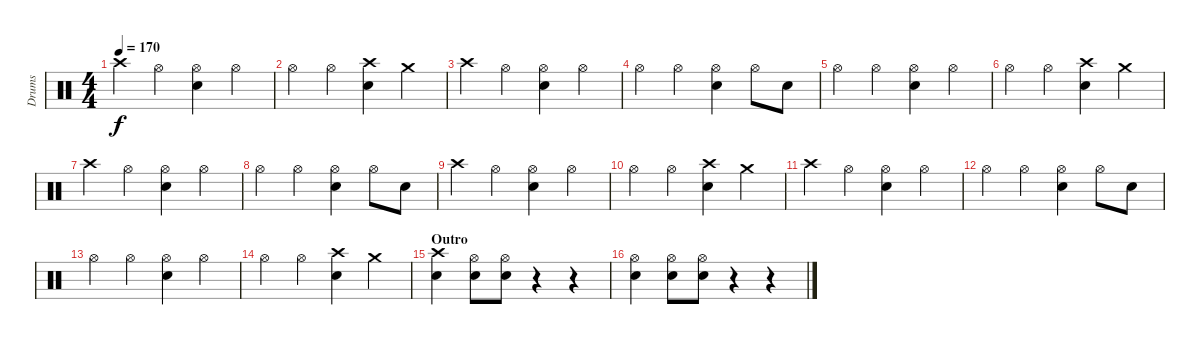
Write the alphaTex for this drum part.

\track ("Drums" "Drums") {instrument percussion}
\staff {score}
\articulation defaults
\ts (4 4)
\tempo 170
\clef neutral
\ks c "Crash high (hit)".4{dy f} "Hi-Hat (open)".4
("Hi-Hat (open)" "Electric Snare (hit)").4 "Hi-Hat (open)".4 |
"Hi-Hat (open)".4 "Hi-Hat (open)".4 ("Crash high (hit)" "Electric Snare (hit)").4 "Crash medium (hit)".4 |
"Crash high (hit)".4 "Hi-Hat (open)".4 ("Hi-Hat (open)" "Electric Snare (hit)").4 "Hi-Hat (open)".4 |
"Hi-Hat (open)".4 "Hi-Hat (open)".4 ("Hi-Hat (open)" "Electric Snare (hit)").4 "Hi-Hat (open)".8 "Electric Snare (hit)".8 |
"Hi-Hat (open)".4 "Hi-Hat (open)".4 ("Hi-Hat (open)" "Electric Snare (hit)").4 "Hi-Hat (open)".4 |
"Hi-Hat (open)".4 "Hi-Hat (open)".4 ("Crash high (hit)" "Electric Snare (hit)").4 "Crash medium (hit)".4 |
"Crash high (hit)".4 "Hi-Hat (open)".4 ("Hi-Hat (open)" "Electric Snare (hit)").4 "Hi-Hat (open)".4 |
"Hi-Hat (open)".4 "Hi-Hat (open)".4 ("Hi-Hat (open)" "Electric Snare (hit)").4 "Hi-Hat (open)".8 "Electric Snare (hit)".8 |
"Crash high (hit)".4 "Hi-Hat (open)".4 ("Hi-Hat (open)" "Electric Snare (hit)").4 "Hi-Hat (open)".4 |
"Hi-Hat (open)".4 "Hi-Hat (open)".4 ("Crash high (hit)" "Electric Snare (hit)").4 "Crash medium (hit)".4 |
"Crash high (hit)".4 "Hi-Hat (open)".4 ("Hi-Hat (open)" "Electric Snare (hit)").4 "Hi-Hat (open)".4 |
"Hi-Hat (open)".4 "Hi-Hat (open)".4 ("Hi-Hat (open)" "Electric Snare (hit)").4 "Hi-Hat (open)".8 "Electric Snare (hit)".8 |
"Hi-Hat (open)".4 "Hi-Hat (open)".4 ("Hi-Hat (open)" "Electric Snare (hit)").4 "Hi-Hat (open)".4 |
"Hi-Hat (open)".4 "Hi-Hat (open)".4 ("Crash high (hit)" "Electric Snare (hit)").4 "Crash medium (hit)".4 |
\section ("" "Outro")
("Crash high (hit)" "Electric Snare (hit)").4 ("Hi-Hat (open)" "Electric Snare (hit)").8 ("Hi-Hat (open)" "Electric Snare (hit)").8 r.4 r.4 |
("Hi-Hat (open)" "Electric Snare (hit)").4 ("Hi-Hat (open)" "Electric Snare (hit)").8 ("Hi-Hat (open)" "Electric Snare (hit)").8 r.4 r.4
